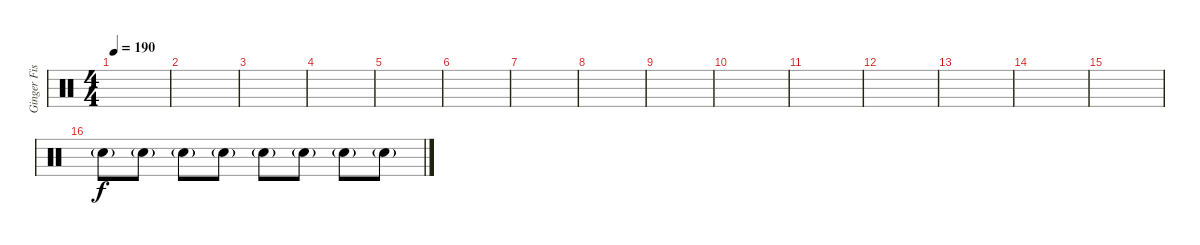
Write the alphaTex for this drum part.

\track ("Ginger Fish " "Ginger Fis") {instrument percussion}
\staff {score}
\articulation defaults
\ts (4 4)
\tempo 190
\clef neutral
\ks c
|
|
|
|
|
|
|
|
|
|
|
|
|
|
|
"Electric Snare (hit)"{g}.8 "Electric Snare (hit)"{g}.8 "Electric Snare (hit)"{g}.8 "Electric Snare (hit)"{g}.8 "Electric Snare (hit)"{g}.8 "Electric Snare (hit)"{g}.8 "Electric Snare (hit)"{g}.8 "Electric Snare (hit)"{g}.8
